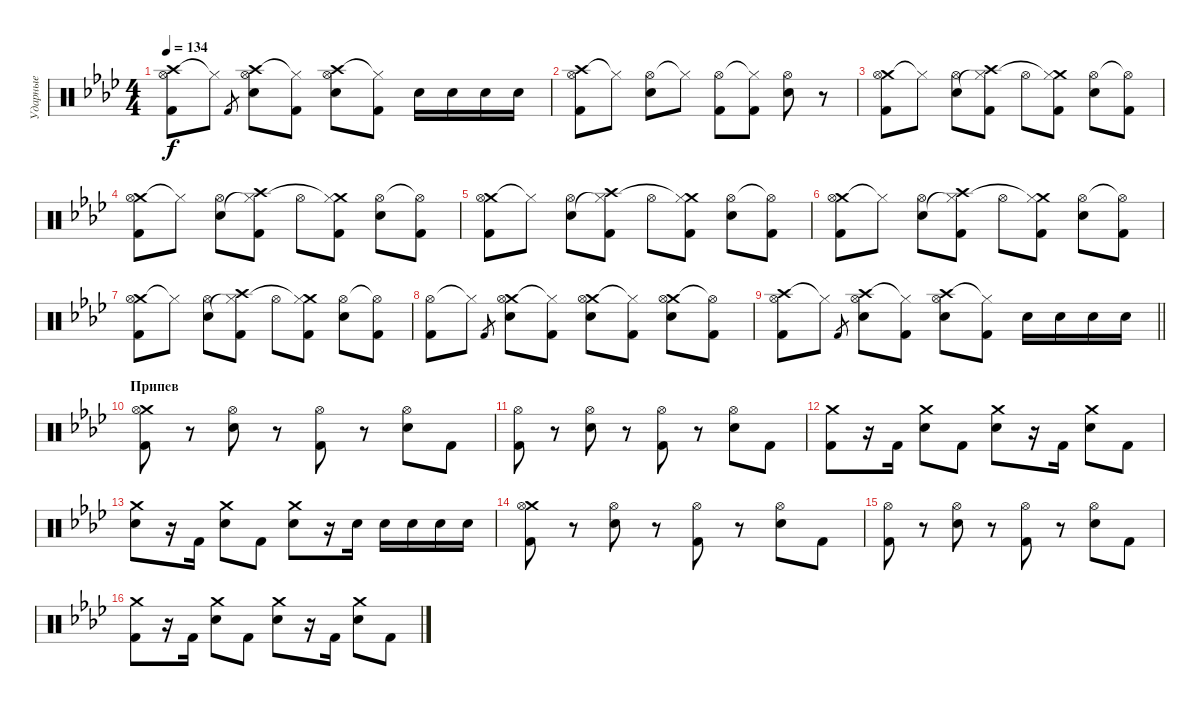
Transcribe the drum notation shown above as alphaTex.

\track ("Ударные" "Ударные") {instrument percussion}
\staff {score}
\articulation defaults
\ts (4 4)
\tempo 134
\clef neutral
\ks fminor
("Crash high (hit)" "Hi-Hat (open)" "Kick (hit) 2").8{dy f} "Hi-Hat (closed)"{t}.8 "Kick (hit) 2".8{gr} ("Crash high (hit)" "Hi-Hat (open)" "Electric Snare (hit)").8 ("Hi-Hat (closed)"{t} "Kick (hit) 2").8 ("Crash high (hit)" "Hi-Hat (open)" "Electric Snare (hit)").8 ("Hi-Hat (closed)"{t} "Kick (hit) 2").8 "Electric Snare (hit)".16 "Electric Snare (hit)".16 "Electric Snare (hit)".16 "Electric Snare (hit)".16 |
("Crash high (hit)" "Hi-Hat (open)" "Kick (hit) 2").8 "Hi-Hat (closed)"{t}.8 ("Hi-Hat (open)" "Electric Snare (hit)").8 "Hi-Hat (closed)"{t}.8 ("Hi-Hat (open)" "Kick (hit) 2").8 ("Hi-Hat (closed)"{t} "Kick (hit) 2").8 ("Hi-Hat (open)" "Electric Snare (hit)").8 r.8 |
("Crash medium (hit)" "Hi-Hat (open)" "Kick (hit) 2").8 "Hi-Hat (closed)"{t}.8 ("Hi-Hat (open)" "Electric Snare (hit)").8 ("Crash high (hit)" "Hi-Hat (closed)"{t} "Kick (hit) 2").8 "Hi-Hat (open)".8 ("Crash medium (hit)" "Hi-Hat (closed)"{t} "Kick (hit) 2").8 ("Hi-Hat (open)" "Electric Snare (hit)").8 ("Hi-Hat (open)"{t} "Kick (hit) 2").8 |
("Crash medium (hit)" "Hi-Hat (open)" "Kick (hit) 2").8 "Hi-Hat (closed)"{t}.8 ("Hi-Hat (open)" "Electric Snare (hit)").8 ("Crash high (hit)" "Hi-Hat (closed)"{t} "Kick (hit) 2").8 "Hi-Hat (open)".8 ("Crash medium (hit)" "Hi-Hat (closed)"{t} "Kick (hit) 2").8 ("Hi-Hat (open)" "Electric Snare (hit)").8 ("Hi-Hat (open)"{t} "Kick (hit) 2").8 |
("Crash medium (hit)" "Hi-Hat (open)" "Kick (hit) 2").8 "Hi-Hat (closed)"{t}.8 ("Hi-Hat (open)" "Electric Snare (hit)").8 ("Crash high (hit)" "Hi-Hat (closed)"{t} "Kick (hit) 2").8 "Hi-Hat (open)".8 ("Crash medium (hit)" "Hi-Hat (closed)"{t} "Kick (hit) 2").8 ("Hi-Hat (open)" "Electric Snare (hit)").8 ("Hi-Hat (open)"{t} "Kick (hit) 2").8 |
("Crash medium (hit)" "Hi-Hat (open)" "Kick (hit) 2").8 "Hi-Hat (closed)"{t}.8 ("Hi-Hat (open)" "Electric Snare (hit)").8 ("Crash high (hit)" "Hi-Hat (closed)"{t} "Kick (hit) 2").8 "Hi-Hat (open)".8 ("Crash medium (hit)" "Hi-Hat (closed)"{t} "Kick (hit) 2").8 ("Hi-Hat (open)" "Electric Snare (hit)").8 ("Hi-Hat (open)"{t} "Kick (hit) 2").8 |
("Crash medium (hit)" "Hi-Hat (open)" "Kick (hit) 2").8 "Hi-Hat (closed)"{t}.8 ("Hi-Hat (open)" "Electric Snare (hit)").8 ("Crash high (hit)" "Hi-Hat (closed)"{t} "Kick (hit) 2").8 "Hi-Hat (open)".8 ("Crash medium (hit)" "Hi-Hat (closed)"{t} "Kick (hit) 2").8 ("Hi-Hat (open)" "Electric Snare (hit)").8 ("Hi-Hat (open)"{t} "Kick (hit) 2").8 |
("Hi-Hat (open)" "Kick (hit) 2").8 "Hi-Hat (closed)"{t}.8 "Kick (hit) 2".8{gr} ("Crash medium (hit)" "Hi-Hat (open)" "Electric Snare (hit)").8 ("Hi-Hat (closed)"{t} "Kick (hit) 2").8 ("Crash medium (hit)" "Hi-Hat (open)" "Electric Snare (hit)").8 ("Hi-Hat (closed)"{t} "Kick (hit) 2").8 ("Crash medium (hit)" "Hi-Hat (open)" "Electric Snare (hit)").8 ("Hi-Hat (open)"{t} "Kick (hit) 2").8 |
\barLineRight lightlight
("Crash high (hit)" "Hi-Hat (open)" "Kick (hit) 2").8 "Hi-Hat (closed)"{t}.8 "Kick (hit) 2".8{gr} ("Crash high (hit)" "Hi-Hat (open)" "Electric Snare (hit)").8 ("Hi-Hat (closed)"{t} "Kick (hit) 2").8 ("Crash high (hit)" "Hi-Hat (open)" "Electric Snare (hit)").8 ("Hi-Hat (closed)"{t} "Kick (hit) 2").8 "Electric Snare (hit)".16 "Electric Snare (hit)".16 "Electric Snare (hit)".16 "Electric Snare (hit)".16 |
\section ("" "Припев")
("Crash medium (hit)" "Hi-Hat (open)" "Kick (hit) 2").8 r.8 ("Hi-Hat (open)" "Electric Snare (hit)").8 r.8 ("Hi-Hat (open)" "Kick (hit) 2").8 r.8 ("Hi-Hat (open)" "Electric Snare (hit)").8 "Kick (hit) 2".8 |
("Hi-Hat (open)" "Kick (hit) 2").8 r.8 ("Hi-Hat (open)" "Electric Snare (hit)").8 r.8 ("Hi-Hat (open)" "Kick (hit) 2").8 r.8 ("Hi-Hat (open)" "Electric Snare (hit)").8 "Kick (hit) 2".8 |
("Crash medium (hit)" "Kick (hit) 2").8 r.16 "Kick (hit) 2".16 ("Crash medium (hit)" "Electric Snare (hit)").8 "Kick (hit) 2".8 ("Crash medium (hit)" "Electric Snare (hit)").8 r.16 "Kick (hit) 2".16 ("Crash medium (hit)" "Electric Snare (hit)").8 "Kick (hit) 2".8 |
("Crash medium (hit)" "Electric Snare (hit)").8 r.16 "Kick (hit) 2".16 ("Crash medium (hit)" "Electric Snare (hit)").8 "Kick (hit) 2".8 ("Crash medium (hit)" "Electric Snare (hit)").8 r.16 "Electric Snare (hit)".16 "Electric Snare (hit)".16 "Electric Snare (hit)".16 "Electric Snare (hit)".16 "Electric Snare (hit)".16 |
("Crash medium (hit)" "Hi-Hat (open)" "Kick (hit) 2").8 r.8 ("Hi-Hat (open)" "Electric Snare (hit)").8 r.8 ("Hi-Hat (open)" "Kick (hit) 2").8 r.8 ("Hi-Hat (open)" "Electric Snare (hit)").8 "Kick (hit) 2".8 |
("Hi-Hat (open)" "Kick (hit) 2").8 r.8 ("Hi-Hat (open)" "Electric Snare (hit)").8 r.8 ("Hi-Hat (open)" "Kick (hit) 2").8 r.8 ("Hi-Hat (open)" "Electric Snare (hit)").8 "Kick (hit) 2".8 |
("Crash medium (hit)" "Kick (hit) 2").8 r.16 "Kick (hit) 2".16 ("Crash medium (hit)" "Electric Snare (hit)").8 "Kick (hit) 2".8 ("Crash medium (hit)" "Electric Snare (hit)").8 r.16 "Kick (hit) 2".16 ("Crash medium (hit)" "Electric Snare (hit)").8 "Kick (hit) 2".8
